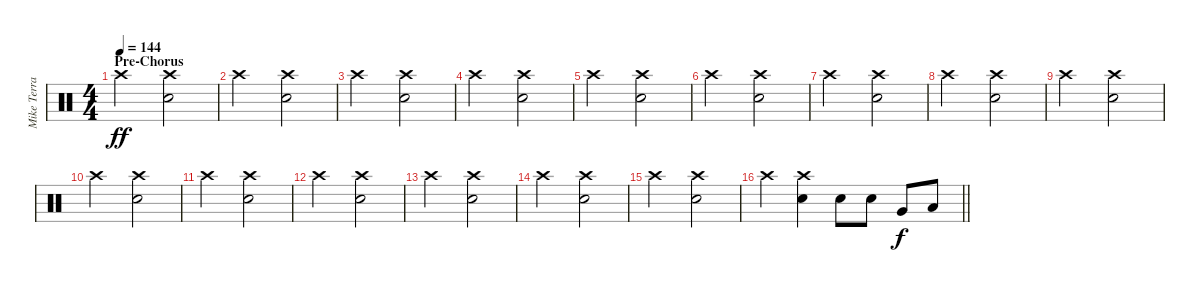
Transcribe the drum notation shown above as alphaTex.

\track ("Mike Terrana" "Mike Terra") {instrument percussion}
\staff {score}
\articulation defaults
\ts (4 4)
\section ("" "Pre-Chorus")
\tempo 144
\clef neutral
\ks c "Crash high (hit)".2{dy ff}
("Snare (hit) 2" "Crash high (hit)").2 |
"Crash high (hit)".2 ("Snare (hit) 2" "Crash high (hit)").2 |
"Crash high (hit)".2 ("Snare (hit) 2" "Crash high (hit)").2 |
"Crash high (hit)".2 ("Snare (hit) 2" "Crash high (hit)").2 |
"Crash high (hit)".2 ("Snare (hit) 2" "Crash high (hit)").2 |
"Crash high (hit)".2 ("Snare (hit) 2" "Crash high (hit)").2 |
"Crash high (hit)".2 ("Snare (hit) 2" "Crash high (hit)").2 |
"Crash high (hit)".2 ("Snare (hit) 2" "Crash high (hit)").2 |
"Crash high (hit)".2 ("Snare (hit) 2" "Crash high (hit)").2 |
"Crash high (hit)".2 ("Snare (hit) 2" "Crash high (hit)").2 |
"Crash high (hit)".2 ("Snare (hit) 2" "Crash high (hit)").2 |
"Crash high (hit)".2 ("Snare (hit) 2" "Crash high (hit)").2 |
"Crash high (hit)".2 ("Snare (hit) 2" "Crash high (hit)").2 |
"Crash high (hit)".2 ("Snare (hit) 2" "Crash high (hit)").2 |
"Crash high (hit)".2 ("Snare (hit) 2" "Crash high (hit)").2 |
\barLineRight lightlight "Crash high (hit)".4
("Snare (hit) 2" "Crash high (hit)").4 "Snare (hit) 2".8 "Snare (hit) 2".8 "Very Low Tom (hit)".8{dy f} "Low Floor Tom (hit)".8
